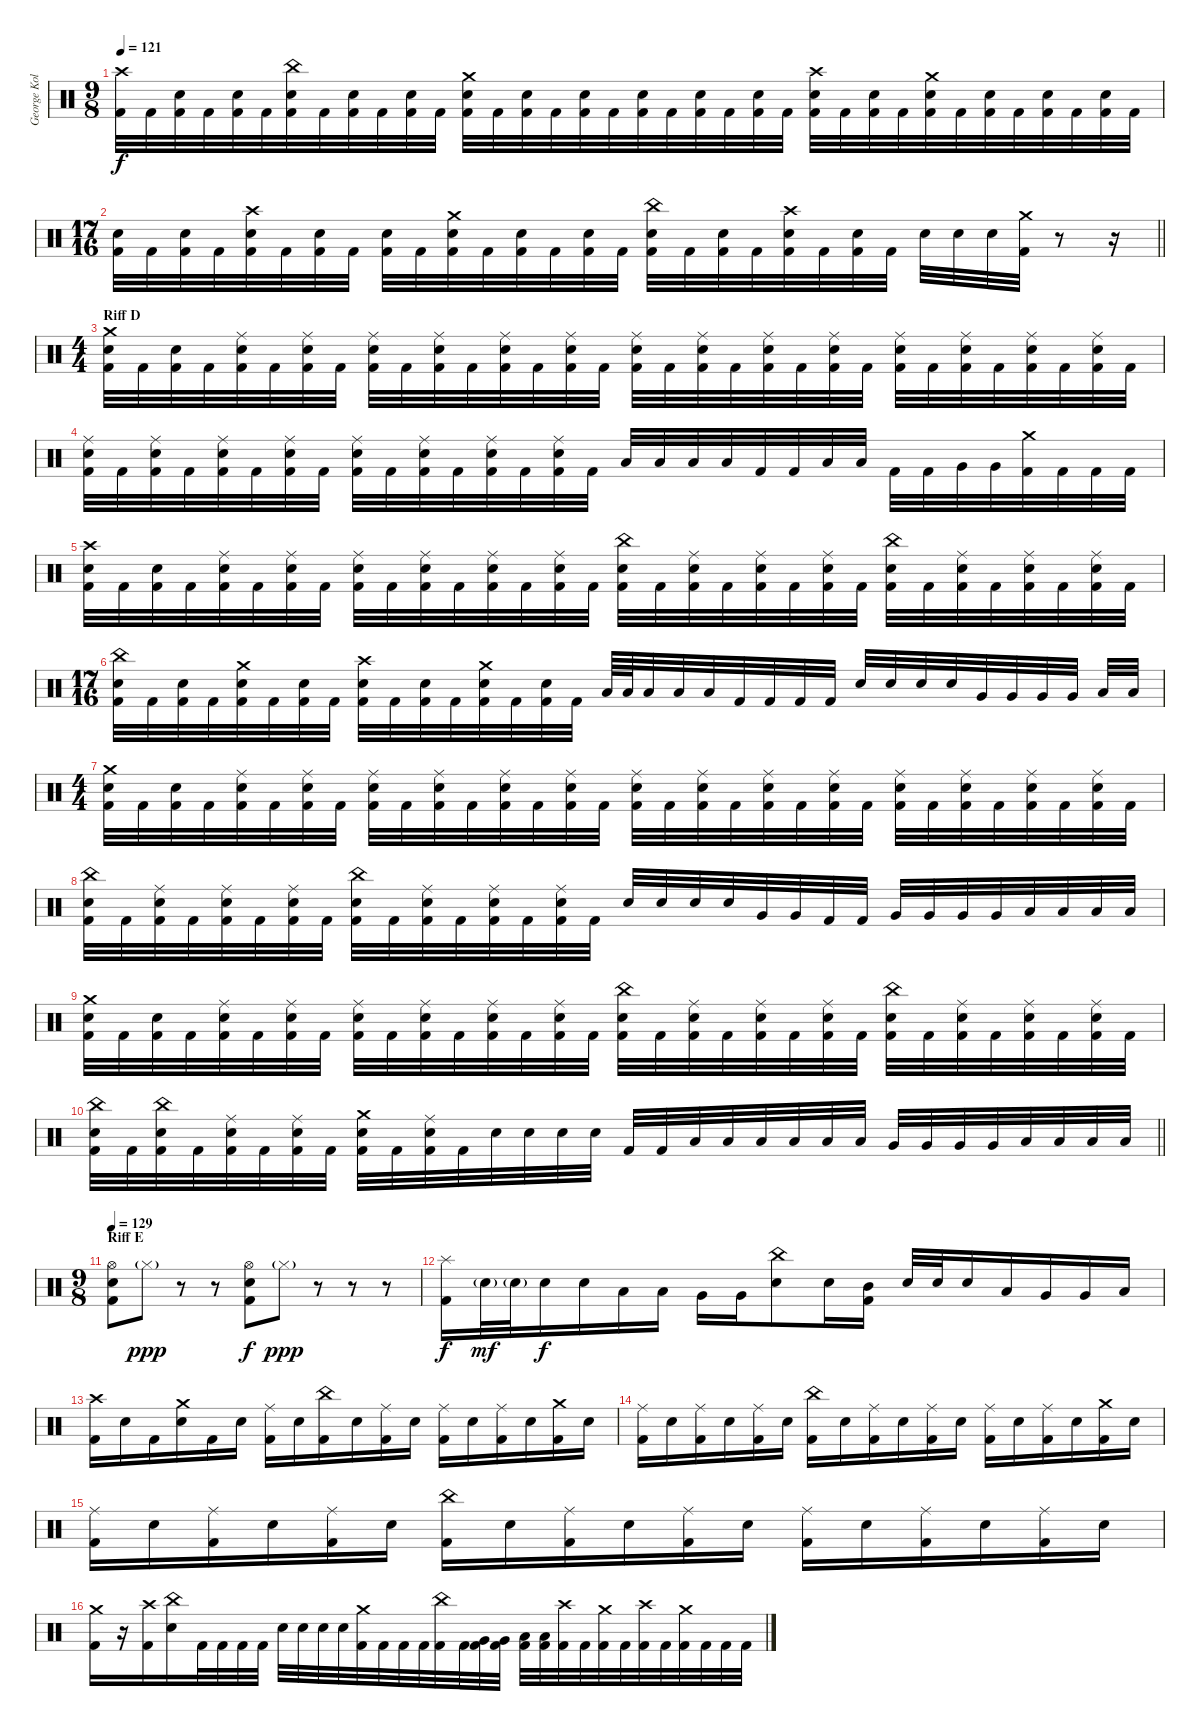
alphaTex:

\track ("George Kollias" "George Kol") {instrument percussion}
\staff {score}
\articulation defaults
\ts (9 8)
\tempo 121
\clef neutral
\ks c
("Crash high (hit)" "Kick (hit) 2").32{dy f} "Kick (hit) 2".32 ("Electric Snare (hit)" "Kick (hit) 2").32 "Kick (hit) 2".32 ("Electric Snare (hit)" "Kick (hit) 2").32 "Kick (hit) 2".32 ("China (hit)" "Electric Snare (hit)" "Kick (hit) 2").32 "Kick (hit) 2".32 ("Electric Snare (hit)" "Kick (hit) 2").32 "Kick (hit) 2".32 ("Electric Snare (hit)" "Kick (hit) 2").32 "Kick (hit) 2".32 ("Crash medium (hit)" "Electric Snare (hit)" "Kick (hit) 2").32 "Kick (hit) 2".32 ("Electric Snare (hit)" "Kick (hit) 2").32 "Kick (hit) 2".32 ("Electric Snare (hit)" "Kick (hit) 2").32 "Kick (hit) 2".32 ("Electric Snare (hit)" "Kick (hit) 2").32 "Kick (hit) 2".32 ("Electric Snare (hit)" "Kick (hit) 2").32 "Kick (hit) 2".32 ("Electric Snare (hit)" "Kick (hit) 2").32 "Kick (hit) 2".32 ("Crash high (hit)" "Electric Snare (hit)" "Kick (hit) 2").32 "Kick (hit) 2".32 ("Electric Snare (hit)" "Kick (hit) 2").32 "Kick (hit) 2".32 ("Crash medium (hit)" "Electric Snare (hit)" "Kick (hit) 2").32 "Kick (hit) 2".32 ("Electric Snare (hit)" "Kick (hit) 2").32 "Kick (hit) 2".32 ("Electric Snare (hit)" "Kick (hit) 2").32 "Kick (hit) 2".32 ("Electric Snare (hit)" "Kick (hit) 2").32 "Kick (hit) 2".32 |
\ts (17 16)
\barLineRight lightlight
("Electric Snare (hit)" "Kick (hit) 2").32 "Kick (hit) 2".32 ("Electric Snare (hit)" "Kick (hit) 2").32 "Kick (hit) 2".32 ("Crash high (hit)" "Electric Snare (hit)" "Kick (hit) 2").32 "Kick (hit) 2".32 ("Electric Snare (hit)" "Kick (hit) 2").32 "Kick (hit) 2".32 ("Electric Snare (hit)" "Kick (hit) 2").32 "Kick (hit) 2".32 ("Crash medium (hit)" "Electric Snare (hit)" "Kick (hit) 2").32 "Kick (hit) 2".32 ("Electric Snare (hit)" "Kick (hit) 2").32 "Kick (hit) 2".32 ("Electric Snare (hit)" "Kick (hit) 2").32 "Kick (hit) 2".32 ("China (hit)" "Electric Snare (hit)" "Kick (hit) 2").32 "Kick (hit) 2".32 ("Electric Snare (hit)" "Kick (hit) 2").32 "Kick (hit) 2".32 ("Crash high (hit)" "Electric Snare (hit)" "Kick (hit) 2").32 "Kick (hit) 2".32 ("Electric Snare (hit)" "Kick (hit) 2").32 "Kick (hit) 2".32 "Electric Snare (hit)".32 "Electric Snare (hit)".32 "Electric Snare (hit)".32 ("Crash medium (hit)" "Kick (hit) 2").32 r.8 r.16 |
\ts (4 4)
\section ("" "Riff D")
("Crash medium (hit)" "Electric Snare (hit)" "Kick (hit) 2").32 "Kick (hit) 2".32 ("Electric Snare (hit)" "Kick (hit) 2").32 "Kick (hit) 2".32 ("Ride (middle)" "Electric Snare (hit)" "Kick (hit) 2").32 "Kick (hit) 2".32 ("Ride (middle)" "Electric Snare (hit)" "Kick (hit) 2").32 "Kick (hit) 2".32 ("Ride (middle)" "Electric Snare (hit)" "Kick (hit) 2").32 "Kick (hit) 2".32 ("Ride (middle)" "Electric Snare (hit)" "Kick (hit) 2").32 "Kick (hit) 2".32 ("Ride (middle)" "Electric Snare (hit)" "Kick (hit) 2").32 "Kick (hit) 2".32 ("Ride (middle)" "Electric Snare (hit)" "Kick (hit) 2").32 "Kick (hit) 2".32 ("Ride (middle)" "Electric Snare (hit)" "Kick (hit) 2").32 "Kick (hit) 2".32 ("Ride (middle)" "Electric Snare (hit)" "Kick (hit) 2").32 "Kick (hit) 2".32 ("Ride (middle)" "Electric Snare (hit)" "Kick (hit) 2").32 "Kick (hit) 2".32 ("Ride (middle)" "Electric Snare (hit)" "Kick (hit) 2").32 "Kick (hit) 2".32 ("Ride (middle)" "Electric Snare (hit)" "Kick (hit) 2").32 "Kick (hit) 2".32 ("Ride (middle)" "Electric Snare (hit)" "Kick (hit) 2").32 "Kick (hit) 2".32 ("Ride (middle)" "Electric Snare (hit)" "Kick (hit) 2").32 "Kick (hit) 2".32 ("Ride (middle)" "Electric Snare (hit)" "Kick (hit) 2").32 "Kick (hit) 2".32 |
("Ride (middle)" "Electric Snare (hit)" "Kick (hit) 2").32 "Kick (hit) 2".32 ("Ride (middle)" "Electric Snare (hit)" "Kick (hit) 2").32 "Kick (hit) 2".32 ("Ride (middle)" "Electric Snare (hit)" "Kick (hit) 2").32 "Kick (hit) 2".32 ("Ride (middle)" "Electric Snare (hit)" "Kick (hit) 2").32 "Kick (hit) 2".32 ("Ride (middle)" "Electric Snare (hit)" "Kick (hit) 2").32 "Kick (hit) 2".32 ("Ride (middle)" "Electric Snare (hit)" "Kick (hit) 2").32 "Kick (hit) 2".32 ("Ride (middle)" "Electric Snare (hit)" "Kick (hit) 2").32 "Kick (hit) 2".32 ("Ride (middle)" "Electric Snare (hit)" "Kick (hit) 2").32 "Kick (hit) 2".32 "Low Tom (hit)".32 "Low Tom (hit)".32 "Low Tom (hit)".32 "Low Tom (hit)".32 "Kick (hit) 2".32 "Kick (hit) 2".32 "Low Tom (hit)".32 "Low Tom (hit)".32 "Kick (hit) 2".32 "Kick (hit) 2".32 "Very Low Tom (hit)".32 "Very Low Tom (hit)".32 ("Crash medium (hit)" "Kick (hit) 2").32 "Kick (hit) 2".32 "Kick (hit) 2".32 "Kick (hit) 2".32 |
("Crash high (hit)" "Electric Snare (hit)" "Kick (hit) 2").32 "Kick (hit) 2".32 ("Electric Snare (hit)" "Kick (hit) 2").32 "Kick (hit) 2".32 ("Ride (middle)" "Electric Snare (hit)" "Kick (hit) 2").32 "Kick (hit) 2".32 ("Ride (middle)" "Electric Snare (hit)" "Kick (hit) 2").32 "Kick (hit) 2".32 ("Ride (middle)" "Electric Snare (hit)" "Kick (hit) 2").32 "Kick (hit) 2".32 ("Ride (middle)" "Electric Snare (hit)" "Kick (hit) 2").32 "Kick (hit) 2".32 ("Ride (middle)" "Electric Snare (hit)" "Kick (hit) 2").32 "Kick (hit) 2".32 ("Ride (middle)" "Electric Snare (hit)" "Kick (hit) 2").32 "Kick (hit) 2".32 ("China (hit)" "Electric Snare (hit)" "Kick (hit) 2").32 "Kick (hit) 2".32 ("Ride (middle)" "Electric Snare (hit)" "Kick (hit) 2").32 "Kick (hit) 2".32 ("Ride (middle)" "Electric Snare (hit)" "Kick (hit) 2").32 "Kick (hit) 2".32 ("Ride (middle)" "Electric Snare (hit)" "Kick (hit) 2").32 "Kick (hit) 2".32 ("China (hit)" "Electric Snare (hit)" "Kick (hit) 2").32 "Kick (hit) 2".32 ("Ride (middle)" "Electric Snare (hit)" "Kick (hit) 2").32 "Kick (hit) 2".32 ("Ride (middle)" "Electric Snare (hit)" "Kick (hit) 2").32 "Kick (hit) 2".32 ("Ride (middle)" "Electric Snare (hit)" "Kick (hit) 2").32 "Kick (hit) 2".32 |
\ts (17 16)
("China (hit)" "Electric Snare (hit)" "Kick (hit) 2").32 "Kick (hit) 2".32 ("Electric Snare (hit)" "Kick (hit) 2").32 "Kick (hit) 2".32 ("Crash medium (hit)" "Electric Snare (hit)" "Kick (hit) 2").32 "Kick (hit) 2".32 ("Electric Snare (hit)" "Kick (hit) 2").32 "Kick (hit) 2".32 ("Crash high (hit)" "Electric Snare (hit)" "Kick (hit) 2").32 "Kick (hit) 2".32 ("Electric Snare (hit)" "Kick (hit) 2").32 "Kick (hit) 2".32 ("Crash medium (hit)" "Electric Snare (hit)" "Kick (hit) 2").32 "Kick (hit) 2".32 ("Electric Snare (hit)" "Kick (hit) 2").32 "Kick (hit) 2".32 "Low Floor Tom (hit)".64 "Low Floor Tom (hit)".64 "Low Floor Tom (hit)".32 "Low Floor Tom (hit)".32 "Low Floor Tom (hit)".32 "Kick (hit) 2".32 "Kick (hit) 2".32 "Kick (hit) 2".32 "Kick (hit) 2".32 "Electric Snare (hit)".32 "Electric Snare (hit)".32 "Electric Snare (hit)".32 "Electric Snare (hit)".32 "Very Low Tom (hit)".32 "Very Low Tom (hit)".32 "Very Low Tom (hit)".32 "Very Low Tom (hit)".32 "Low Floor Tom (hit)".32 "Low Floor Tom (hit)".32 |
\ts (4 4)
("Crash medium (hit)" "Electric Snare (hit)" "Kick (hit) 2").32 "Kick (hit) 2".32 ("Electric Snare (hit)" "Kick (hit) 2").32 "Kick (hit) 2".32 ("Ride (middle)" "Electric Snare (hit)" "Kick (hit) 2").32 "Kick (hit) 2".32 ("Ride (middle)" "Electric Snare (hit)" "Kick (hit) 2").32 "Kick (hit) 2".32 ("Ride (middle)" "Electric Snare (hit)" "Kick (hit) 2").32 "Kick (hit) 2".32 ("Ride (middle)" "Electric Snare (hit)" "Kick (hit) 2").32 "Kick (hit) 2".32 ("Ride (middle)" "Electric Snare (hit)" "Kick (hit) 2").32 "Kick (hit) 2".32 ("Ride (middle)" "Electric Snare (hit)" "Kick (hit) 2").32 "Kick (hit) 2".32 ("Ride (middle)" "Electric Snare (hit)" "Kick (hit) 2").32 "Kick (hit) 2".32 ("Ride (middle)" "Electric Snare (hit)" "Kick (hit) 2").32 "Kick (hit) 2".32 ("Ride (middle)" "Electric Snare (hit)" "Kick (hit) 2").32 "Kick (hit) 2".32 ("Ride (middle)" "Electric Snare (hit)" "Kick (hit) 2").32 "Kick (hit) 2".32 ("Ride (middle)" "Electric Snare (hit)" "Kick (hit) 2").32 "Kick (hit) 2".32 ("Ride (middle)" "Electric Snare (hit)" "Kick (hit) 2").32 "Kick (hit) 2".32 ("Ride (middle)" "Electric Snare (hit)" "Kick (hit) 2").32 "Kick (hit) 2".32 ("Ride (middle)" "Electric Snare (hit)" "Kick (hit) 2").32 "Kick (hit) 2".32 |
("China (hit)" "Electric Snare (hit)" "Kick (hit) 2").32 "Kick (hit) 2".32 ("Ride (middle)" "Electric Snare (hit)" "Kick (hit) 2").32 "Kick (hit) 2".32 ("Ride (middle)" "Electric Snare (hit)" "Kick (hit) 2").32 "Kick (hit) 2".32 ("Ride (middle)" "Electric Snare (hit)" "Kick (hit) 2").32 "Kick (hit) 2".32 ("China (hit)" "Electric Snare (hit)" "Kick (hit) 2").32 "Kick (hit) 2".32 ("Ride (middle)" "Electric Snare (hit)" "Kick (hit) 2").32 "Kick (hit) 2".32 ("Ride (middle)" "Electric Snare (hit)" "Kick (hit) 2").32 "Kick (hit) 2".32 ("Ride (middle)" "Electric Snare (hit)" "Kick (hit) 2").32 "Kick (hit) 2".32 "Electric Snare (hit)".32 "Electric Snare (hit)".32 "Electric Snare (hit)".32 "Electric Snare (hit)".32 "Very Low Tom (hit)".32 "Very Low Tom (hit)".32 "Kick (hit) 2".32 "Kick (hit) 2".32 "Very Low Tom (hit)".32 "Very Low Tom (hit)".32 "Very Low Tom (hit)".32 "Very Low Tom (hit)".32 "Low Floor Tom (hit)".32 "Low Floor Tom (hit)".32 "Low Floor Tom (hit)".32 "Low Floor Tom (hit)".32 |
("Crash medium (hit)" "Electric Snare (hit)" "Kick (hit) 2").32 "Kick (hit) 2".32 ("Electric Snare (hit)" "Kick (hit) 2").32 "Kick (hit) 2".32 ("Ride (middle)" "Electric Snare (hit)" "Kick (hit) 2").32 "Kick (hit) 2".32 ("Ride (middle)" "Electric Snare (hit)" "Kick (hit) 2").32 "Kick (hit) 2".32 ("Ride (middle)" "Electric Snare (hit)" "Kick (hit) 2").32 "Kick (hit) 2".32 ("Ride (middle)" "Electric Snare (hit)" "Kick (hit) 2").32 "Kick (hit) 2".32 ("Ride (middle)" "Electric Snare (hit)" "Kick (hit) 2").32 "Kick (hit) 2".32 ("Ride (middle)" "Electric Snare (hit)" "Kick (hit) 2").32 "Kick (hit) 2".32 ("China (hit)" "Electric Snare (hit)" "Kick (hit) 2").32 "Kick (hit) 2".32 ("Ride (middle)" "Electric Snare (hit)" "Kick (hit) 2").32 "Kick (hit) 2".32 ("Ride (middle)" "Electric Snare (hit)" "Kick (hit) 2").32 "Kick (hit) 2".32 ("Ride (middle)" "Electric Snare (hit)" "Kick (hit) 2").32 "Kick (hit) 2".32 ("China (hit)" "Electric Snare (hit)" "Kick (hit) 2").32 "Kick (hit) 2".32 ("Ride (middle)" "Electric Snare (hit)" "Kick (hit) 2").32 "Kick (hit) 2".32 ("Ride (middle)" "Electric Snare (hit)" "Kick (hit) 2").32 "Kick (hit) 2".32 ("Ride (middle)" "Electric Snare (hit)" "Kick (hit) 2").32 "Kick (hit) 2".32 |
\barLineRight lightlight
("China (hit)" "Electric Snare (hit)" "Kick (hit) 2").32 "Kick (hit) 2".32 ("China (hit)" "Electric Snare (hit)" "Kick (hit) 2").32 "Kick (hit) 2".32 ("Ride (middle)" "Electric Snare (hit)" "Kick (hit) 2").32 "Kick (hit) 2".32 ("Ride (middle)" "Electric Snare (hit)" "Kick (hit) 2").32 "Kick (hit) 2".32 ("Crash medium (hit)" "Electric Snare (hit)" "Kick (hit) 2").32 "Kick (hit) 2".32 ("Ride (middle)" "Electric Snare (hit)" "Kick (hit) 2").32 "Kick (hit) 2".32 "Electric Snare (hit)".32 "Electric Snare (hit)".32 "Electric Snare (hit)".32 "Electric Snare (hit)".32 "Kick (hit) 2".32 "Kick (hit) 2".32 "Low Tom (hit)".32 "Low Tom (hit)".32 "Low Tom (hit)".32 "Low Tom (hit)".32 "Low Tom (hit)".32 "Low Tom (hit)".32 "Very Low Tom (hit)".32 "Very Low Tom (hit)".32 "Very Low Tom (hit)".32 "Very Low Tom (hit)".32 "Low Floor Tom (hit)".32 "Low Floor Tom (hit)".32 "Low Floor Tom (hit)".32 "Low Floor Tom (hit)".32 |
\ts (9 8)
\section ("" "Riff E")
\tempo 129
("Hi-Hat (open)" "Electric Snare (hit)" "Kick (hit) 2").8 "Hi-Hat (closed)"{g}.8{dy ppp} r.8 r.8 ("Hi-Hat (open)" "Electric Snare (hit)" "Kick (hit) 2").8{dy f} "Hi-Hat (closed)"{g}.8{dy ppp} r.8 r.8 r.8 |
("Splash (hit)" "Kick (hit) 2").16{dy f} "Electric Snare (hit)"{g}.32{dy mf} "Electric Snare (hit)"{g}.32 "Electric Snare (hit)".16{dy f} "Electric Snare (hit)".16 "Low Tom (hit)".16 "Low Tom (hit)".16 "Very Low Tom (hit)".16 "Very Low Tom (hit)".16 ("China (hit)" "Electric Snare (hit)").8 "Electric Snare (hit)".16 ("Mid Tom (hit)" "Kick (hit) 2").16 "Electric Snare (hit)".32 "Electric Snare (hit)".32 "Electric Snare (hit)".16 "Low Tom (hit)".16 "Very Low Tom (hit)".16 "Very Low Tom (hit)".16 "Low Floor Tom (hit)".16 |
("Crash high (hit)" "Kick (hit) 2").16 "Electric Snare (hit)".16 "Kick (hit) 2".16 ("Crash medium (hit)" "Electric Snare (hit)").16 "Kick (hit) 2".16 "Electric Snare (hit)".16 ("Ride (middle)" "Kick (hit) 2").16 "Electric Snare (hit)".16 ("China (hit)" "Kick (hit) 2").16 "Electric Snare (hit)".16 ("Ride (middle)" "Kick (hit) 2").16 "Electric Snare (hit)".16 ("Ride (middle)" "Kick (hit) 2").16 "Electric Snare (hit)".16 ("Ride (middle)" "Kick (hit) 2").16 "Electric Snare (hit)".16 ("Crash medium (hit)" "Kick (hit) 2").16 "Electric Snare (hit)".16 |
("Ride (middle)" "Kick (hit) 2").16 "Electric Snare (hit)".16 ("Ride (middle)" "Kick (hit) 2").16 "Electric Snare (hit)".16 ("Ride (middle)" "Kick (hit) 2").16 "Electric Snare (hit)".16 ("China (hit)" "Kick (hit) 2").16 "Electric Snare (hit)".16 ("Ride (middle)" "Kick (hit) 2").16 "Electric Snare (hit)".16 ("Ride (middle)" "Kick (hit) 2").16 "Electric Snare (hit)".16 ("Ride (middle)" "Kick (hit) 2").16 "Electric Snare (hit)".16 ("Ride (middle)" "Kick (hit) 2").16 "Electric Snare (hit)".16 ("Crash medium (hit)" "Kick (hit) 2").16 "Electric Snare (hit)".16 |
("Ride (middle)" "Kick (hit) 2").16 "Electric Snare (hit)".16 ("Ride (middle)" "Kick (hit) 2").16 "Electric Snare (hit)".16 ("Ride (middle)" "Kick (hit) 2").16 "Electric Snare (hit)".16 ("China (hit)" "Kick (hit) 2").16 "Electric Snare (hit)".16 ("Ride (middle)" "Kick (hit) 2").16 "Electric Snare (hit)".16 ("Ride (middle)" "Kick (hit) 2").16 "Electric Snare (hit)".16 ("Ride (middle)" "Kick (hit) 2").16 "Electric Snare (hit)".16 ("Ride (middle)" "Kick (hit) 2").16 "Electric Snare (hit)".16 ("Ride (middle)" "Kick (hit) 2").16 "Electric Snare (hit)".16 |
("Crash medium (hit)" "Kick (hit) 2").16 r.16 ("Crash high (hit)" "Kick (hit) 2").16 ("China (hit)" "Electric Snare (hit)").16 "Kick (hit) 2".32 "Kick (hit) 2".32 "Kick (hit) 2".32 "Kick (hit) 2".32 "Electric Snare (hit)".32 "Electric Snare (hit)".32 "Electric Snare (hit)".32 "Electric Snare (hit)".32 ("Crash medium (hit)" "Kick (hit) 2").32 "Kick (hit) 2".32 "Kick (hit) 2".32 "Kick (hit) 2".32 ("China (hit)" "Kick (hit) 2").32 "Kick (hit) 2".32 ("Very Low Tom (hit)" "Kick (hit) 2").32 ("Very Low Tom (hit)" "Kick (hit) 2").32 ("Low Floor Tom (hit)" "Kick (hit) 2").32 ("Low Floor Tom (hit)" "Kick (hit) 2").32 ("Crash high (hit)" "Kick (hit) 2").32 "Kick (hit) 2".32 ("Crash medium (hit)" "Kick (hit) 2").32 "Kick (hit) 2".32 ("Crash high (hit)" "Kick (hit) 2").32 "Kick (hit) 2".32 ("Crash medium (hit)" "Kick (hit) 2").32 "Kick (hit) 2".32 "Kick (hit) 2".32 "Kick (hit) 2".32
